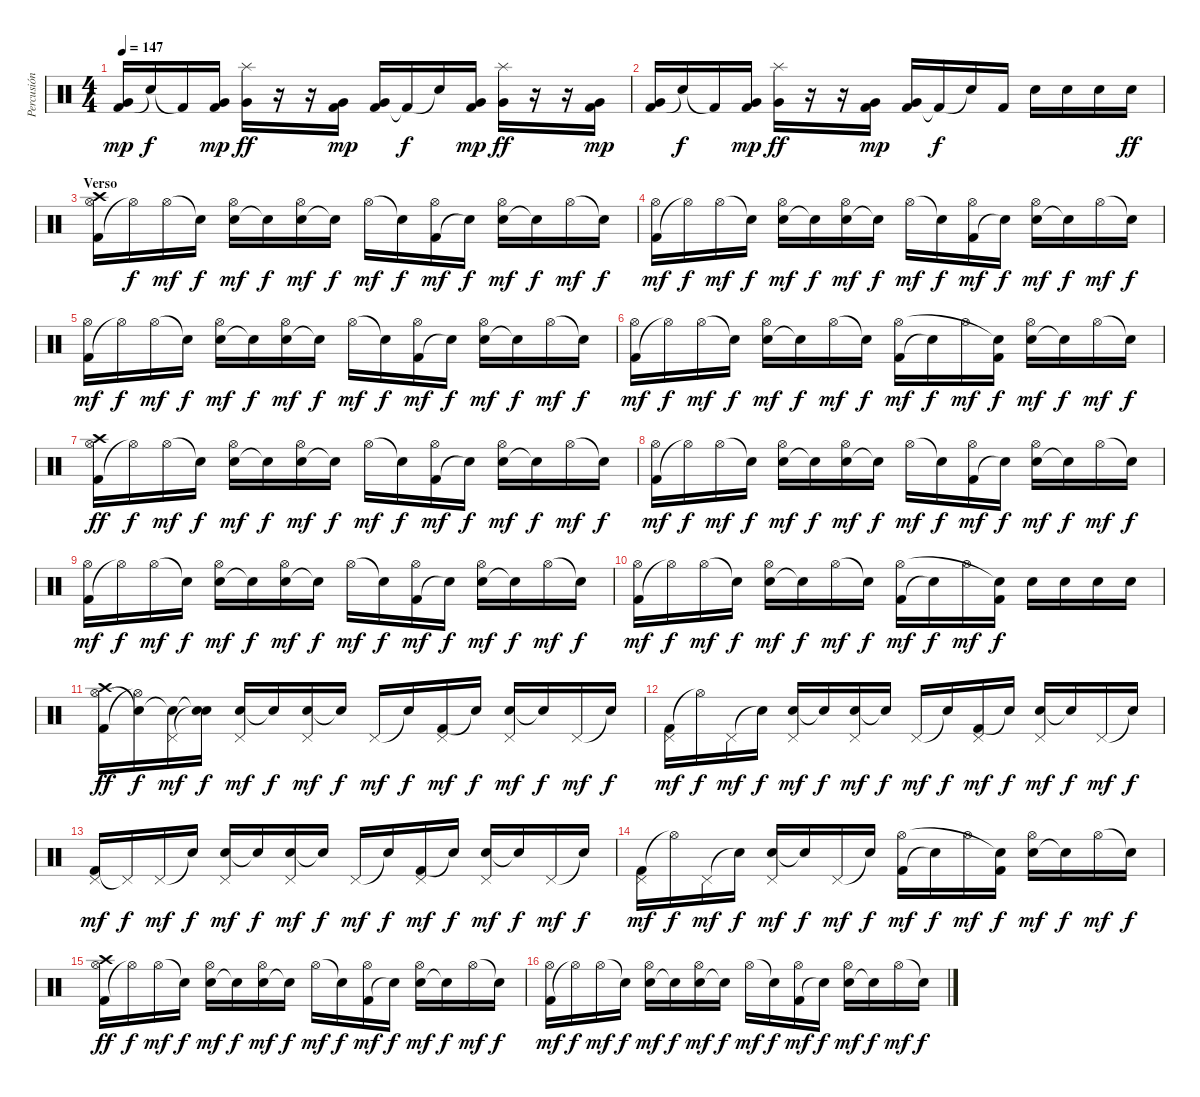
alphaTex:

\track ("Percusión" "Percusión") {instrument percussion}
\staff {score}
\articulation defaults
\ts (4 4)
\tempo 147
\clef neutral
\ks c
("Kick (hit) 2" "Very Low Tom (hit)").16{dy mp} "Snare (hit)"{t}.16{dy f} "Kick (hit) 2"{t}.16 ("Kick (hit) 2" "Very Low Tom (hit)").16{dy mp} ("Very Low Tom (hit)" "Splash (hit)").16{dy ff} r.16 r.16 ("Kick (hit) 2" "Very Low Tom (hit)").16{dy mp} ("Kick (hit) 2" "Very Low Tom (hit)").16 "Kick (hit) 2"{t}.16{dy f} "Snare (hit)"{t}.16 ("Kick (hit) 2" "Very Low Tom (hit)").16{dy mp} ("Very Low Tom (hit)" "Splash (hit)").16{dy ff} r.16 r.16 ("Kick (hit) 2" "Very Low Tom (hit)").16{dy mp} |
("Kick (hit) 2" "Very Low Tom (hit)").16 "Snare (hit)"{t}.16{dy f} "Kick (hit) 2"{t}.16 ("Kick (hit) 2" "Very Low Tom (hit)").16{dy mp} ("Very Low Tom (hit)" "Splash (hit)").16{dy ff} r.16 r.16 ("Kick (hit) 2" "Very Low Tom (hit)").16{dy mp} ("Kick (hit) 2" "Very Low Tom (hit)").16 "Kick (hit) 2"{t}.16{dy f} "Snare (hit)"{t}.16 "Kick (hit) 2".16 "Electric Snare (hit)".16 "Electric Snare (hit)".16 "Electric Snare (hit)".16 "Electric Snare (hit)".16{dy ff} |
\section ("" "Verso")
("Kick (hit) 2" "Hi-Hat (open)" "Crash high (hit)").16 "Hi-Hat (open)"{t}.16{dy f} "Hi-Hat (open)".16{dy mf} "Snare (hit)"{t}.16{dy f} ("Electric Snare (hit)" "Hi-Hat (open)").16{dy mf} "Snare (hit)"{t}.16{dy f} ("Electric Snare (hit)" "Hi-Hat (open)").16{dy mf} "Snare (hit)"{t}.16{dy f} "Hi-Hat (open)".16{dy mf} "Snare (hit)"{t}.16{dy f} ("Kick (hit) 2" "Hi-Hat (open)").16{dy mf} "Snare (hit)"{t}.16{dy f} ("Electric Snare (hit)" "Hi-Hat (open)").16{dy mf} "Snare (hit)"{t}.16{dy f} "Hi-Hat (open)".16{dy mf} "Snare (hit)"{t}.16{dy f} |
("Kick (hit) 2" "Hi-Hat (open)").16{dy mf} "Hi-Hat (open)"{t}.16{dy f} "Hi-Hat (open)".16{dy mf} "Snare (hit)"{t}.16{dy f} ("Electric Snare (hit)" "Hi-Hat (open)").16{dy mf} "Snare (hit)"{t}.16{dy f} ("Electric Snare (hit)" "Hi-Hat (open)").16{dy mf} "Snare (hit)"{t}.16{dy f} "Hi-Hat (open)".16{dy mf} "Snare (hit)"{t}.16{dy f} ("Kick (hit) 2" "Hi-Hat (open)").16{dy mf} "Snare (hit)"{t}.16{dy f} ("Electric Snare (hit)" "Hi-Hat (open)").16{dy mf} "Snare (hit)"{t}.16{dy f} "Hi-Hat (open)".16{dy mf} "Snare (hit)"{t}.16{dy f} |
("Kick (hit) 2" "Hi-Hat (open)").16{dy mf} "Hi-Hat (open)"{t}.16{dy f} "Hi-Hat (open)".16{dy mf} "Snare (hit)"{t}.16{dy f} ("Electric Snare (hit)" "Hi-Hat (open)").16{dy mf} "Snare (hit)"{t}.16{dy f} ("Electric Snare (hit)" "Hi-Hat (open)").16{dy mf} "Snare (hit)"{t}.16{dy f} "Hi-Hat (open)".16{dy mf} "Snare (hit)"{t}.16{dy f} ("Kick (hit) 2" "Hi-Hat (open)").16{dy mf} "Snare (hit)"{t}.16{dy f} ("Electric Snare (hit)" "Hi-Hat (open)").16{dy mf} "Snare (hit)"{t}.16{dy f} "Hi-Hat (open)".16{dy mf} "Snare (hit)"{t}.16{dy f} |
("Kick (hit) 2" "Hi-Hat (open)").16{dy mf} "Hi-Hat (open)"{t}.16{dy f} "Hi-Hat (open)".16{dy mf} "Snare (hit)"{t}.16{dy f} ("Electric Snare (hit)" "Hi-Hat (open)").16{dy mf} "Snare (hit)"{t}.16{dy f} "Hi-Hat (open)".16{dy mf} "Snare (hit)"{t}.16{dy f} ("Kick (hit) 2" "Hi-Hat (open)").16{dy mf} "Snare (hit)"{t}.16{dy f} "Hi-Hat (open)".16{dy mf} ("Kick (hit) 2" "Snare (hit)"{t}).16{dy f} ("Electric Snare (hit)" "Hi-Hat (open)").16{dy mf} "Snare (hit)"{t}.16{dy f} "Hi-Hat (open)".16{dy mf} "Snare (hit)"{t}.16{dy f} |
("Kick (hit) 2" "Hi-Hat (open)" "Crash high (hit)").16{dy ff} "Hi-Hat (open)"{t}.16{dy f} "Hi-Hat (open)".16{dy mf} "Snare (hit)"{t}.16{dy f} ("Electric Snare (hit)" "Hi-Hat (open)").16{dy mf} "Snare (hit)"{t}.16{dy f} ("Electric Snare (hit)" "Hi-Hat (open)").16{dy mf} "Snare (hit)"{t}.16{dy f} "Hi-Hat (open)".16{dy mf} "Snare (hit)"{t}.16{dy f} ("Kick (hit) 2" "Hi-Hat (open)").16{dy mf} "Snare (hit)"{t}.16{dy f} ("Electric Snare (hit)" "Hi-Hat (open)").16{dy mf} "Snare (hit)"{t}.16{dy f} "Hi-Hat (open)".16{dy mf} "Snare (hit)"{t}.16{dy f} |
("Kick (hit) 2" "Hi-Hat (open)").16{dy mf} "Hi-Hat (open)"{t}.16{dy f} "Hi-Hat (open)".16{dy mf} "Snare (hit)"{t}.16{dy f} ("Electric Snare (hit)" "Hi-Hat (open)").16{dy mf} "Snare (hit)"{t}.16{dy f} ("Electric Snare (hit)" "Hi-Hat (open)").16{dy mf} "Snare (hit)"{t}.16{dy f} "Hi-Hat (open)".16{dy mf} "Snare (hit)"{t}.16{dy f} ("Kick (hit) 2" "Hi-Hat (open)").16{dy mf} "Snare (hit)"{t}.16{dy f} ("Electric Snare (hit)" "Hi-Hat (open)").16{dy mf} "Snare (hit)"{t}.16{dy f} "Hi-Hat (open)".16{dy mf} "Snare (hit)"{t}.16{dy f} |
("Kick (hit) 2" "Hi-Hat (open)").16{dy mf} "Hi-Hat (open)"{t}.16{dy f} "Hi-Hat (open)".16{dy mf} "Snare (hit)"{t}.16{dy f} ("Electric Snare (hit)" "Hi-Hat (open)").16{dy mf} "Snare (hit)"{t}.16{dy f} ("Electric Snare (hit)" "Hi-Hat (open)").16{dy mf} "Snare (hit)"{t}.16{dy f} "Hi-Hat (open)".16{dy mf} "Snare (hit)"{t}.16{dy f} ("Kick (hit) 2" "Hi-Hat (open)").16{dy mf} "Snare (hit)"{t}.16{dy f} ("Electric Snare (hit)" "Hi-Hat (open)").16{dy mf} "Snare (hit)"{t}.16{dy f} "Hi-Hat (open)".16{dy mf} "Snare (hit)"{t}.16{dy f} |
("Kick (hit) 2" "Hi-Hat (open)").16{dy mf} "Hi-Hat (open)"{t}.16{dy f} "Hi-Hat (open)".16{dy mf} "Snare (hit)"{t}.16{dy f} ("Electric Snare (hit)" "Hi-Hat (open)").16{dy mf} "Snare (hit)"{t}.16{dy f} "Hi-Hat (open)".16{dy mf} "Snare (hit)"{t}.16{dy f} ("Kick (hit) 2" "Hi-Hat (open)").16{dy mf} "Snare (hit)"{t}.16{dy f} "Hi-Hat (open)".16{dy mf} ("Kick (hit) 2" "Snare (hit)"{t}).16{dy f} "Electric Snare (hit)".16 "Electric Snare (hit)".16 "Electric Snare (hit)".16 "Electric Snare (hit)".16 |
("Kick (hit) 2" "Hi-Hat (open)" "Crash high (hit)").16{dy ff} ("Hi-Hat (open)"{t} "Snare (hit)"{t}).16{dy f} ("Pedal Hi-Hat (hit)" "Snare (hit)"{t}).16{dy mf} ("Snare (hit)"{t} "Snare (hit)"{t}).16{dy f} ("Electric Snare (hit)" "Pedal Hi-Hat (hit)").16{dy mf} "Snare (hit)"{t}.16{dy f} ("Electric Snare (hit)" "Pedal Hi-Hat (hit)").16{dy mf} "Snare (hit)"{t}.16{dy f} "Pedal Hi-Hat (hit)".16{dy mf} "Snare (hit)"{t}.16{dy f} ("Kick (hit) 2" "Pedal Hi-Hat (hit)").16{dy mf} "Snare (hit)"{t}.16{dy f} ("Electric Snare (hit)" "Pedal Hi-Hat (hit)").16{dy mf} "Snare (hit)"{t}.16{dy f} "Pedal Hi-Hat (hit)".16{dy mf} "Snare (hit)"{t}.16{dy f} |
("Kick (hit) 2" "Pedal Hi-Hat (hit)").16{dy mf} "Hi-Hat (open)"{t}.16{dy f} "Pedal Hi-Hat (hit)".16{dy mf} "Snare (hit)"{t}.16{dy f} ("Electric Snare (hit)" "Pedal Hi-Hat (hit)").16{dy mf} "Snare (hit)"{t}.16{dy f} ("Electric Snare (hit)" "Pedal Hi-Hat (hit)").16{dy mf} "Snare (hit)"{t}.16{dy f} "Pedal Hi-Hat (hit)".16{dy mf} "Snare (hit)"{t}.16{dy f} ("Kick (hit) 2" "Pedal Hi-Hat (hit)").16{dy mf} "Snare (hit)"{t}.16{dy f} ("Electric Snare (hit)" "Pedal Hi-Hat (hit)").16{dy mf} "Snare (hit)"{t}.16{dy f} "Pedal Hi-Hat (hit)".16{dy mf} "Snare (hit)"{t}.16{dy f} |
("Kick (hit) 2" "Pedal Hi-Hat (hit)").16{dy mf} "Pedal Hi-Hat (hit)"{t}.16{dy f} "Pedal Hi-Hat (hit)".16{dy mf} "Snare (hit)"{t}.16{dy f} ("Electric Snare (hit)" "Pedal Hi-Hat (hit)").16{dy mf} "Snare (hit)"{t}.16{dy f} ("Electric Snare (hit)" "Pedal Hi-Hat (hit)").16{dy mf} "Snare (hit)"{t}.16{dy f} "Pedal Hi-Hat (hit)".16{dy mf} "Snare (hit)"{t}.16{dy f} ("Kick (hit) 2" "Pedal Hi-Hat (hit)").16{dy mf} "Snare (hit)"{t}.16{dy f} ("Electric Snare (hit)" "Pedal Hi-Hat (hit)").16{dy mf} "Snare (hit)"{t}.16{dy f} "Pedal Hi-Hat (hit)".16{dy mf} "Snare (hit)"{t}.16{dy f} |
("Kick (hit) 2" "Pedal Hi-Hat (hit)").16{dy mf} "Hi-Hat (open)"{t}.16{dy f} "Pedal Hi-Hat (hit)".16{dy mf} "Snare (hit)"{t}.16{dy f} ("Electric Snare (hit)" "Pedal Hi-Hat (hit)").16{dy mf} "Snare (hit)"{t}.16{dy f} "Pedal Hi-Hat (hit)".16{dy mf} "Snare (hit)"{t}.16{dy f} ("Kick (hit) 2" "Hi-Hat (open)").16{dy mf} "Snare (hit)"{t}.16{dy f} "Hi-Hat (open)".16{dy mf} ("Kick (hit) 2" "Snare (hit)"{t}).16{dy f} ("Electric Snare (hit)" "Hi-Hat (open)").16{dy mf} "Snare (hit)"{t}.16{dy f} "Hi-Hat (open)".16{dy mf} "Snare (hit)"{t}.16{dy f} |
("Kick (hit) 2" "Hi-Hat (open)" "Crash high (hit)").16{dy ff} "Hi-Hat (open)"{t}.16{dy f} "Hi-Hat (open)".16{dy mf} "Snare (hit)"{t}.16{dy f} ("Electric Snare (hit)" "Hi-Hat (open)").16{dy mf} "Snare (hit)"{t}.16{dy f} ("Electric Snare (hit)" "Hi-Hat (open)").16{dy mf} "Snare (hit)"{t}.16{dy f} "Hi-Hat (open)".16{dy mf} "Snare (hit)"{t}.16{dy f} ("Kick (hit) 2" "Hi-Hat (open)").16{dy mf} "Snare (hit)"{t}.16{dy f} ("Electric Snare (hit)" "Hi-Hat (open)").16{dy mf} "Snare (hit)"{t}.16{dy f} "Hi-Hat (open)".16{dy mf} "Snare (hit)"{t}.16{dy f} |
("Kick (hit) 2" "Hi-Hat (open)").16{dy mf} "Hi-Hat (open)"{t}.16{dy f} "Hi-Hat (open)".16{dy mf} "Snare (hit)"{t}.16{dy f} ("Electric Snare (hit)" "Hi-Hat (open)").16{dy mf} "Snare (hit)"{t}.16{dy f} ("Electric Snare (hit)" "Hi-Hat (open)").16{dy mf} "Snare (hit)"{t}.16{dy f} "Hi-Hat (open)".16{dy mf} "Snare (hit)"{t}.16{dy f} ("Kick (hit) 2" "Hi-Hat (open)").16{dy mf} "Snare (hit)"{t}.16{dy f} ("Electric Snare (hit)" "Hi-Hat (open)").16{dy mf} "Snare (hit)"{t}.16{dy f} "Hi-Hat (open)".16{dy mf} "Snare (hit)"{t}.16{dy f}
